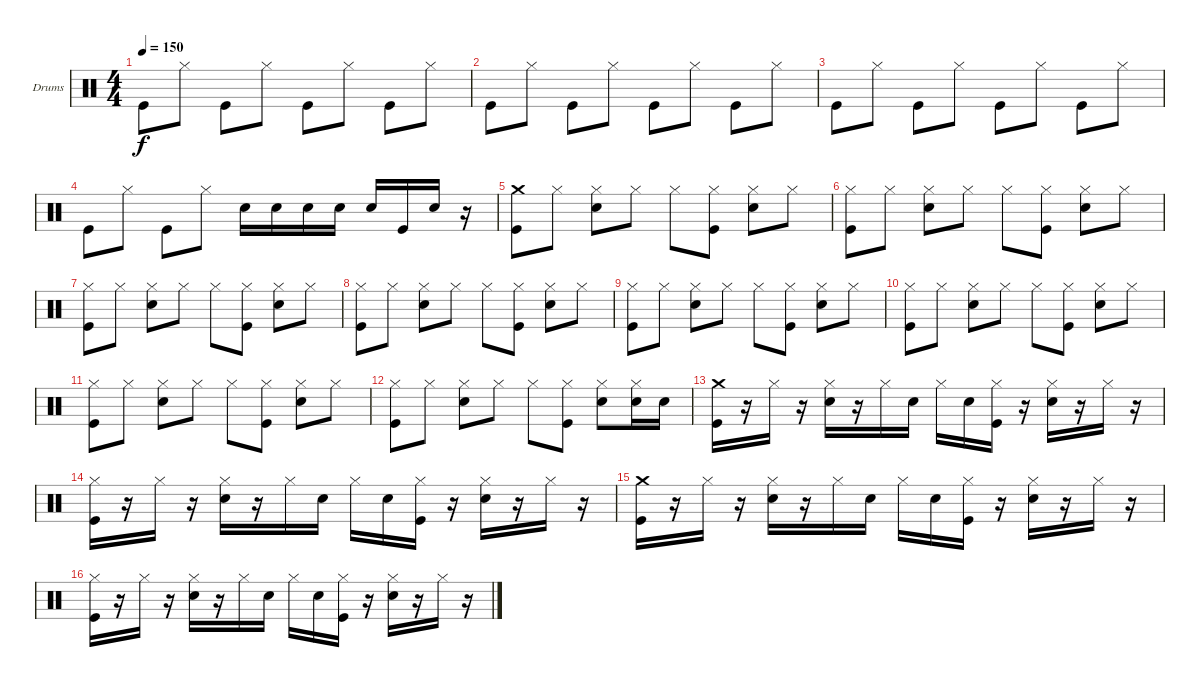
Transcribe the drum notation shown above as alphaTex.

\defaultSystemsLayout 4
\bracketExtendMode groupsimilarinstruments
\firstSystemTrackNameOrientation horizontal
\otherSystemsTrackNameOrientation horizontal
\track ("Drumkit" "Drums") {instrument percussion}
\staff {score}
\articulation defaults
\ts (4 4)
\tempo 150
\clef neutral
\ks c "Kick (hit)".8{dy f} "Hi-Hat (closed)".8 "Kick (hit)".8 "Hi-Hat (closed)".8 "Kick (hit)".8 "Hi-Hat (closed)".8 "Kick (hit)".8 "Hi-Hat (closed)".8
|
"Kick (hit)".8 "Hi-Hat (closed)".8 "Kick (hit)".8 "Hi-Hat (closed)".8 "Kick (hit)".8 "Hi-Hat (closed)".8 "Kick (hit)".8 "Hi-Hat (closed)".8 |
"Kick (hit)".8 "Hi-Hat (closed)".8 "Kick (hit)".8 "Hi-Hat (closed)".8 "Kick (hit)".8 "Hi-Hat (closed)".8 "Kick (hit)".8 "Hi-Hat (closed)".8 |
"Kick (hit)".8 "Hi-Hat (closed)".8 "Kick (hit)".8 "Hi-Hat (closed)".8 "Snare (hit) 2".16 "Snare (hit) 2".16 "Snare (hit) 2".16 "Snare (hit) 2".16 "Snare (hit) 2".16 "Kick (hit)".16 "Snare (hit) 2".16 r.16 |
("Kick (hit)" "Crash medium (hit)").8 "Hi-Hat (closed)".8 ("Snare (hit) 2" "Hi-Hat (closed)").8 "Hi-Hat (closed)".8 "Hi-Hat (closed)".8 ("Kick (hit)" "Hi-Hat (closed)").8 ("Snare (hit) 2" "Hi-Hat (closed)").8 "Hi-Hat (closed)".8 |
("Kick (hit)" "Hi-Hat (closed)").8 "Hi-Hat (closed)".8 ("Snare (hit) 2" "Hi-Hat (closed)").8 "Hi-Hat (closed)".8 "Hi-Hat (closed)".8 ("Kick (hit)" "Hi-Hat (closed)").8 ("Snare (hit) 2" "Hi-Hat (closed)").8 "Hi-Hat (closed)".8 |
("Kick (hit)" "Hi-Hat (closed)").8 "Hi-Hat (closed)".8 ("Snare (hit) 2" "Hi-Hat (closed)").8 "Hi-Hat (closed)".8 "Hi-Hat (closed)".8 ("Kick (hit)" "Hi-Hat (closed)").8 ("Snare (hit) 2" "Hi-Hat (closed)").8 "Hi-Hat (closed)".8 |
("Kick (hit)" "Hi-Hat (closed)").8 "Hi-Hat (closed)".8 ("Snare (hit) 2" "Hi-Hat (closed)").8 "Hi-Hat (closed)".8 "Hi-Hat (closed)".8 ("Kick (hit)" "Hi-Hat (closed)").8 ("Snare (hit) 2" "Hi-Hat (closed)").8 "Hi-Hat (closed)".8 |
("Kick (hit)" "Hi-Hat (closed)").8 "Hi-Hat (closed)".8 ("Snare (hit) 2" "Hi-Hat (closed)").8 "Hi-Hat (closed)".8 "Hi-Hat (closed)".8 ("Kick (hit)" "Hi-Hat (closed)").8 ("Snare (hit) 2" "Hi-Hat (closed)").8 "Hi-Hat (closed)".8 |
("Kick (hit)" "Hi-Hat (closed)").8 "Hi-Hat (closed)".8 ("Snare (hit) 2" "Hi-Hat (closed)").8 "Hi-Hat (closed)".8 "Hi-Hat (closed)".8 ("Kick (hit)" "Hi-Hat (closed)").8 ("Snare (hit) 2" "Hi-Hat (closed)").8 "Hi-Hat (closed)".8 |
("Kick (hit)" "Hi-Hat (closed)").8 "Hi-Hat (closed)".8 ("Snare (hit) 2" "Hi-Hat (closed)").8 "Hi-Hat (closed)".8 "Hi-Hat (closed)".8 ("Kick (hit)" "Hi-Hat (closed)").8 ("Snare (hit) 2" "Hi-Hat (closed)").8 "Hi-Hat (closed)".8 |
("Kick (hit)" "Hi-Hat (closed)").8 "Hi-Hat (closed)".8 ("Snare (hit) 2" "Hi-Hat (closed)").8 "Hi-Hat (closed)".8 "Hi-Hat (closed)".8 ("Kick (hit)" "Hi-Hat (closed)").8 ("Snare (hit) 2" "Hi-Hat (closed)").8 ("Snare (hit) 2" "Hi-Hat (closed)").16 "Snare (hit) 2".16 |
("Kick (hit)" "Crash medium (hit)").16 r.16 "Hi-Hat (closed)".16 r.16 ("Snare (hit) 2" "Hi-Hat (closed)").16 r.16 "Hi-Hat (closed)".16 "Snare (hit) 2".16 "Hi-Hat (closed)".16 "Snare (hit) 2".16 ("Kick (hit)" "Hi-Hat (closed)").16 r.16 ("Snare (hit) 2" "Hi-Hat (closed)").16 r.16 "Hi-Hat (closed)".16 r.16 |
("Kick (hit)" "Hi-Hat (closed)").16 r.16 "Hi-Hat (closed)".16 r.16 ("Snare (hit) 2" "Hi-Hat (closed)").16 r.16 "Hi-Hat (closed)".16 "Snare (hit) 2".16 "Hi-Hat (closed)".16 "Snare (hit) 2".16 ("Kick (hit)" "Hi-Hat (closed)").16 r.16 ("Snare (hit) 2" "Hi-Hat (closed)").16 r.16 "Hi-Hat (closed)".16 r.16 |
("Kick (hit)" "Crash medium (hit)").16 r.16 "Hi-Hat (closed)".16 r.16 ("Snare (hit) 2" "Hi-Hat (closed)").16 r.16 "Hi-Hat (closed)".16 "Snare (hit) 2".16 "Hi-Hat (closed)".16 "Snare (hit) 2".16 ("Kick (hit)" "Hi-Hat (closed)").16 r.16 ("Snare (hit) 2" "Hi-Hat (closed)").16 r.16 "Hi-Hat (closed)".16 r.16 |
("Kick (hit)" "Hi-Hat (closed)").16 r.16 "Hi-Hat (closed)".16 r.16 ("Snare (hit) 2" "Hi-Hat (closed)").16 r.16 "Hi-Hat (closed)".16 "Snare (hit) 2".16 "Hi-Hat (closed)".16 "Snare (hit) 2".16 ("Kick (hit)" "Hi-Hat (closed)").16 r.16 ("Snare (hit) 2" "Hi-Hat (closed)").16 r.16 "Hi-Hat (closed)".16 r.16
